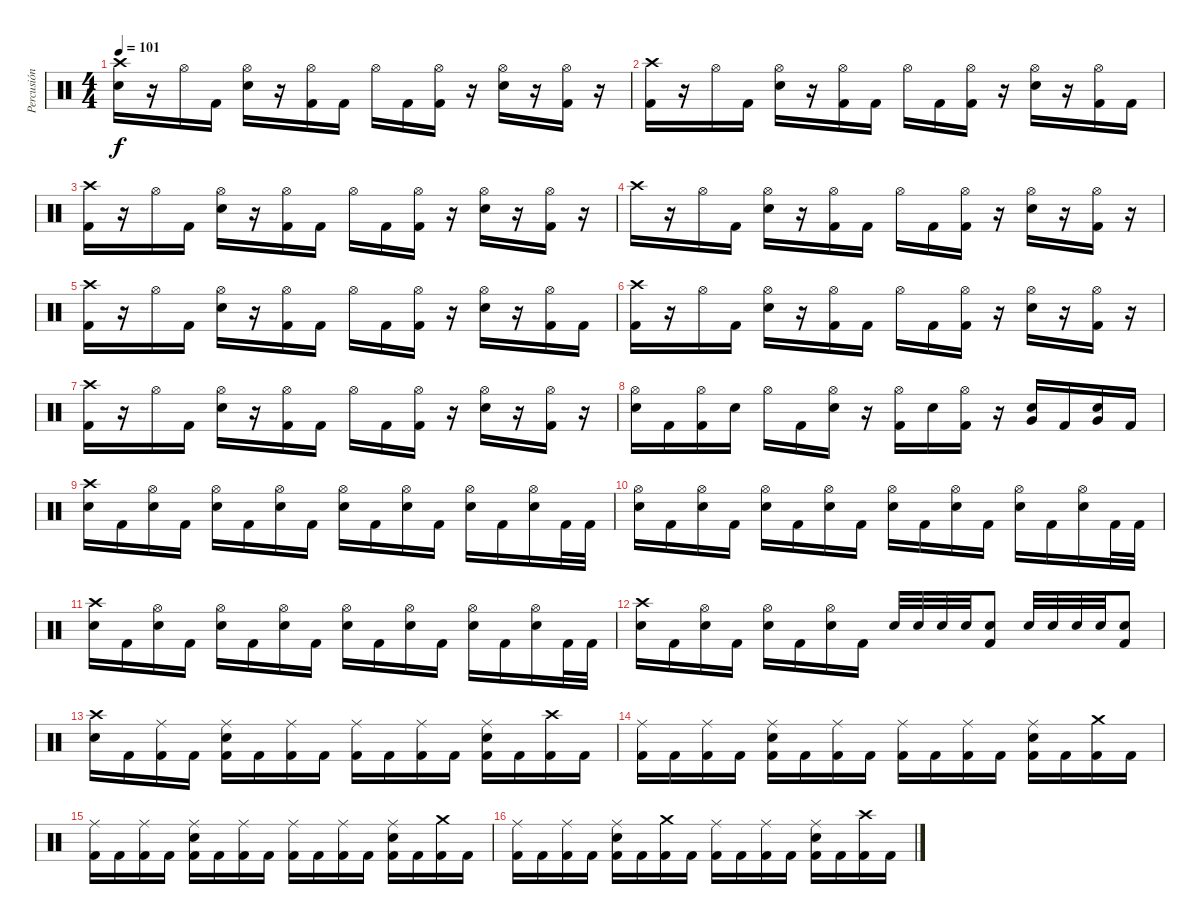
\track ("Percusión" "Percusión") {instrument percussion}
\staff {score}
\articulation defaults
\ts (4 4)
\tempo 101
\clef neutral
\ks c
("Crash high (hit)" "Electric Snare (hit)").16{dy f} r.16 "Hi-Hat (open)".16 "Kick (hit) 2".16 ("Hi-Hat (open)" "Electric Snare (hit)").16 r.16 ("Hi-Hat (open)" "Kick (hit) 2").16 "Kick (hit) 2".16 "Hi-Hat (open)".16 "Kick (hit) 2".16 ("Hi-Hat (open)" "Kick (hit) 2").16 r.16 ("Hi-Hat (open)" "Electric Snare (hit)").16 r.16 ("Hi-Hat (open)" "Kick (hit) 2").16 r.16 |
("Crash high (hit)" "Kick (hit) 2").16 r.16 "Hi-Hat (open)".16 "Kick (hit) 2".16 ("Hi-Hat (open)" "Electric Snare (hit)").16 r.16 ("Hi-Hat (open)" "Kick (hit) 2").16 "Kick (hit) 2".16 "Hi-Hat (open)".16 "Kick (hit) 2".16 ("Hi-Hat (open)" "Kick (hit) 2").16 r.16 ("Hi-Hat (open)" "Electric Snare (hit)").16 r.16 ("Hi-Hat (open)" "Kick (hit) 2").16 "Kick (hit) 2".16 |
("Crash high (hit)" "Kick (hit) 2").16 r.16 "Hi-Hat (open)".16 "Kick (hit) 2".16 ("Hi-Hat (open)" "Electric Snare (hit)").16 r.16 ("Hi-Hat (open)" "Kick (hit) 2").16 "Kick (hit) 2".16 "Hi-Hat (open)".16 "Kick (hit) 2".16 ("Hi-Hat (open)" "Kick (hit) 2").16 r.16 ("Hi-Hat (open)" "Electric Snare (hit)").16 r.16 ("Hi-Hat (open)" "Kick (hit) 2").16 r.16 |
"Crash high (hit)".16 r.16 "Hi-Hat (open)".16 "Kick (hit) 2".16 ("Hi-Hat (open)" "Electric Snare (hit)").16 r.16 ("Hi-Hat (open)" "Kick (hit) 2").16 "Kick (hit) 2".16 "Hi-Hat (open)".16 "Kick (hit) 2".16 ("Hi-Hat (open)" "Kick (hit) 2").16 r.16 ("Hi-Hat (open)" "Electric Snare (hit)").16 r.16 ("Hi-Hat (open)" "Kick (hit) 2").16 r.16 |
("Crash high (hit)" "Kick (hit) 2").16 r.16 "Hi-Hat (open)".16 "Kick (hit) 2".16 ("Hi-Hat (open)" "Electric Snare (hit)").16 r.16 ("Hi-Hat (open)" "Kick (hit) 2").16 "Kick (hit) 2".16 "Hi-Hat (open)".16 "Kick (hit) 2".16 ("Hi-Hat (open)" "Kick (hit) 2").16 r.16 ("Hi-Hat (open)" "Electric Snare (hit)").16 r.16 ("Hi-Hat (open)" "Kick (hit) 2").16 "Kick (hit) 2".16 |
("Crash high (hit)" "Kick (hit) 2").16 r.16 "Hi-Hat (open)".16 "Kick (hit) 2".16 ("Hi-Hat (open)" "Electric Snare (hit)").16 r.16 ("Hi-Hat (open)" "Kick (hit) 2").16 "Kick (hit) 2".16 "Hi-Hat (open)".16 "Kick (hit) 2".16 ("Hi-Hat (open)" "Kick (hit) 2").16 r.16 ("Hi-Hat (open)" "Electric Snare (hit)").16 r.16 ("Hi-Hat (open)" "Kick (hit) 2").16 r.16 |
("Crash high (hit)" "Kick (hit) 2").16 r.16 "Hi-Hat (open)".16 "Kick (hit) 2".16 ("Hi-Hat (open)" "Electric Snare (hit)").16 r.16 ("Hi-Hat (open)" "Kick (hit) 2").16 "Kick (hit) 2".16 "Hi-Hat (open)".16 "Kick (hit) 2".16 ("Hi-Hat (open)" "Kick (hit) 2").16 r.16 ("Hi-Hat (open)" "Electric Snare (hit)").16 r.16 ("Hi-Hat (open)" "Kick (hit) 2").16 r.16 |
("Hi-Hat (open)" "Electric Snare (hit)").16 "Kick (hit) 2".16 ("Hi-Hat (open)" "Kick (hit) 2").16 "Electric Snare (hit)".16 "Hi-Hat (open)".16 "Kick (hit) 2".16 ("Hi-Hat (open)" "Electric Snare (hit)").16 r.16 ("Hi-Hat (open)" "Kick (hit) 2").16 "Electric Snare (hit)".16 ("Hi-Hat (open)" "Kick (hit) 2").16 r.16 ("Very Low Tom (hit)" "Electric Snare (hit)").16 "Kick (hit) 2".16 ("Very Low Tom (hit)" "Electric Snare (hit)").16 "Kick (hit) 2".16 |
("Electric Snare (hit)" "Crash high (hit)").16 "Kick (hit) 2".16 ("Hi-Hat (open)" "Electric Snare (hit)").16 "Kick (hit) 2".16 ("Hi-Hat (open)" "Electric Snare (hit)").16 "Kick (hit) 2".16 ("Hi-Hat (open)" "Electric Snare (hit)").16 "Kick (hit) 2".16 ("Hi-Hat (open)" "Electric Snare (hit)").16 "Kick (hit) 2".16 ("Hi-Hat (open)" "Electric Snare (hit)").16 "Kick (hit) 2".16 ("Hi-Hat (open)" "Electric Snare (hit)").16 "Kick (hit) 2".16 ("Hi-Hat (open)" "Electric Snare (hit)").16 "Kick (hit) 2".32 "Kick (hit) 2".32 |
("Hi-Hat (open)" "Electric Snare (hit)").16 "Kick (hit) 2".16 ("Hi-Hat (open)" "Electric Snare (hit)").16 "Kick (hit) 2".16 ("Hi-Hat (open)" "Electric Snare (hit)").16 "Kick (hit) 2".16 ("Hi-Hat (open)" "Electric Snare (hit)").16 "Kick (hit) 2".16 ("Hi-Hat (open)" "Electric Snare (hit)").16 "Kick (hit) 2".16 ("Hi-Hat (open)" "Electric Snare (hit)").16 "Kick (hit) 2".16 ("Hi-Hat (open)" "Electric Snare (hit)").16 "Kick (hit) 2".16 ("Hi-Hat (open)" "Electric Snare (hit)").16 "Kick (hit) 2".32 "Kick (hit) 2".32 |
("Electric Snare (hit)" "Crash high (hit)").16 "Kick (hit) 2".16 ("Hi-Hat (open)" "Electric Snare (hit)").16 "Kick (hit) 2".16 ("Hi-Hat (open)" "Electric Snare (hit)").16 "Kick (hit) 2".16 ("Hi-Hat (open)" "Electric Snare (hit)").16 "Kick (hit) 2".16 ("Hi-Hat (open)" "Electric Snare (hit)").16 "Kick (hit) 2".16 ("Hi-Hat (open)" "Electric Snare (hit)").16 "Kick (hit) 2".16 ("Hi-Hat (open)" "Electric Snare (hit)").16 "Kick (hit) 2".16 ("Hi-Hat (open)" "Electric Snare (hit)").16 "Kick (hit) 2".32 "Kick (hit) 2".32 |
("Electric Snare (hit)" "Crash high (hit)").16 "Kick (hit) 2".16 ("Hi-Hat (open)" "Electric Snare (hit)").16 "Kick (hit) 2".16 ("Hi-Hat (open)" "Electric Snare (hit)").16 "Kick (hit) 2".16 ("Hi-Hat (open)" "Electric Snare (hit)").16 "Kick (hit) 2".16 "Electric Snare (hit)".32 "Electric Snare (hit)".32 "Electric Snare (hit)".32 "Electric Snare (hit)".32 ("Electric Snare (hit)" "Kick (hit) 2").8 "Electric Snare (hit)".32 "Electric Snare (hit)".32 "Electric Snare (hit)".32 "Electric Snare (hit)".32 ("Electric Snare (hit)" "Kick (hit) 2").8 |
("Crash high (hit)" "Electric Snare (hit)").16 "Kick (hit) 2".16 ("Ride (middle)" "Kick (hit) 2").16 "Kick (hit) 2".16 ("Ride (middle)" "Electric Snare (hit)" "Kick (hit) 2").16 "Kick (hit) 2".16 ("Ride (middle)" "Kick (hit) 2").16 "Kick (hit) 2".16 ("Ride (middle)" "Kick (hit) 2").16 "Kick (hit) 2".16 ("Ride (middle)" "Kick (hit) 2").16 "Kick (hit) 2".16 ("Ride (middle)" "Electric Snare (hit)" "Kick (hit) 2").16 "Kick (hit) 2".16 ("Crash high (hit)" "Kick (hit) 2").16 "Kick (hit) 2".16 |
("Ride (middle)" "Kick (hit) 2").16 "Kick (hit) 2".16 ("Ride (middle)" "Kick (hit) 2").16 "Kick (hit) 2".16 ("Ride (middle)" "Electric Snare (hit)" "Kick (hit) 2").16 "Kick (hit) 2".16 ("Ride (middle)" "Kick (hit) 2").16 "Kick (hit) 2".16 ("Ride (middle)" "Kick (hit) 2").16 "Kick (hit) 2".16 ("Ride (middle)" "Kick (hit) 2").16 "Kick (hit) 2".16 ("Ride (middle)" "Electric Snare (hit)" "Kick (hit) 2").16 "Kick (hit) 2".16 ("Crash medium (hit)" "Kick (hit) 2").16 "Kick (hit) 2".16 |
("Ride (middle)" "Kick (hit) 2").16 "Kick (hit) 2".16 ("Ride (middle)" "Kick (hit) 2").16 "Kick (hit) 2".16 ("Ride (middle)" "Electric Snare (hit)" "Kick (hit) 2").16 "Kick (hit) 2".16 ("Ride (middle)" "Kick (hit) 2").16 "Kick (hit) 2".16 ("Ride (middle)" "Kick (hit) 2").16 "Kick (hit) 2".16 ("Ride (middle)" "Kick (hit) 2").16 "Kick (hit) 2".16 ("Ride (middle)" "Electric Snare (hit)" "Kick (hit) 2").16 "Kick (hit) 2".16 ("Crash medium (hit)" "Kick (hit) 2").16 "Kick (hit) 2".16 |
("Ride (middle)" "Kick (hit) 2").16 "Kick (hit) 2".16 ("Ride (middle)" "Kick (hit) 2").16 "Kick (hit) 2".16 ("Electric Snare (hit)" "Ride (middle)" "Kick (hit) 2").16 "Kick (hit) 2".16 ("Crash medium (hit)" "Kick (hit) 2").16 "Kick (hit) 2".16 ("Ride (middle)" "Kick (hit) 2").16 "Kick (hit) 2".16 ("Ride (middle)" "Kick (hit) 2").16 "Kick (hit) 2".16 ("Electric Snare (hit)" "Ride (middle)" "Kick (hit) 2").16 "Kick (hit) 2".16 ("Crash high (hit)" "Kick (hit) 2").16 "Kick (hit) 2".16
